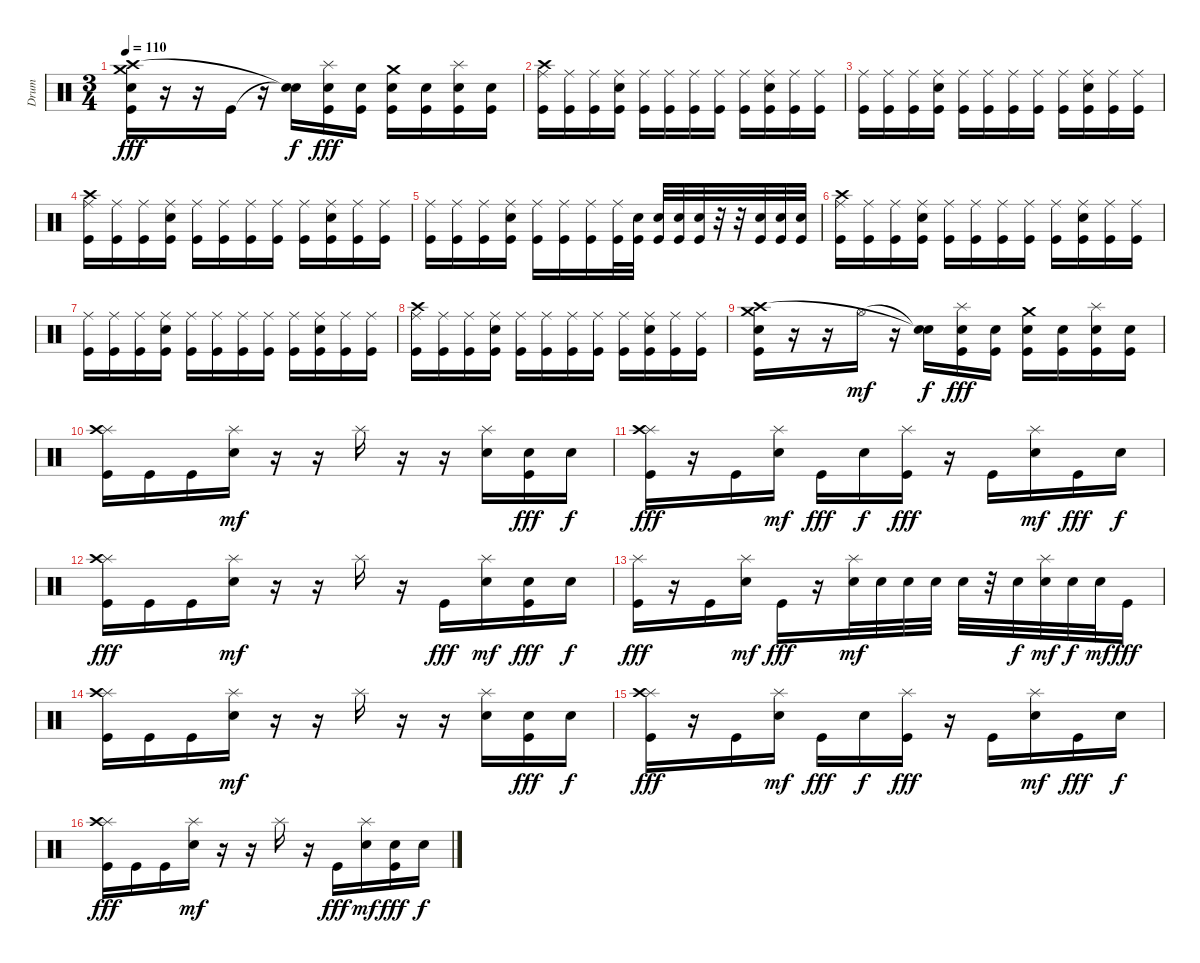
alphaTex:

\track ("Drum" "Drum") {instrument percussion}
\staff {score}
\articulation defaults
\ts (3 4)
\tempo 110
\clef neutral
\ks c
("Crash medium (hit)" "Crash high (hit)" "Electric Snare (hit)" "Kick (hit)").16{dy fff} r.16 r.16 "Kick (hit)".16 r.16 ("Snare (hit)"{t} "Snare (hit)"{t}).16{dy f} ("Splash (hit)" "Electric Snare (hit)" "Kick (hit)").16{dy fff} ("Electric Snare (hit)" "Kick (hit)").16 ("Crash medium (hit)" "Electric Snare (hit)" "Kick (hit)").16 ("Electric Snare (hit)" "Kick (hit)").16 ("Splash (hit)" "Electric Snare (hit)" "Kick (hit)").16 ("Electric Snare (hit)" "Kick (hit)").16 |
("Ride (middle)" "Crash high (hit)" "Kick (hit)").16 ("Ride (middle)" "Kick (hit)").16 ("Ride (middle)" "Kick (hit)").16 ("Ride (middle)" "Electric Snare (hit)" "Kick (hit)").16 ("Ride (middle)" "Kick (hit)").16 ("Ride (middle)" "Kick (hit)").16 ("Ride (middle)" "Kick (hit)").16 ("Ride (middle)" "Kick (hit)").16 ("Ride (middle)" "Kick (hit)").16 ("Ride (middle)" "Electric Snare (hit)" "Kick (hit)").16 ("Ride (middle)" "Kick (hit)").16 ("Ride (middle)" "Kick (hit)").16 |
("Ride (middle)" "Kick (hit)").16 ("Ride (middle)" "Kick (hit)").16 ("Ride (middle)" "Kick (hit)").16 ("Ride (middle)" "Electric Snare (hit)" "Kick (hit)").16 ("Ride (middle)" "Kick (hit)").16 ("Ride (middle)" "Kick (hit)").16 ("Ride (middle)" "Kick (hit)").16 ("Ride (middle)" "Kick (hit)").16 ("Ride (middle)" "Kick (hit)").16 ("Ride (middle)" "Electric Snare (hit)" "Kick (hit)").16 ("Ride (middle)" "Kick (hit)").16 ("Ride (middle)" "Kick (hit)").16 |
("Ride (middle)" "Crash high (hit)" "Kick (hit)").16 ("Ride (middle)" "Kick (hit)").16 ("Ride (middle)" "Kick (hit)").16 ("Ride (middle)" "Electric Snare (hit)" "Kick (hit)").16 ("Ride (middle)" "Kick (hit)").16 ("Ride (middle)" "Kick (hit)").16 ("Ride (middle)" "Kick (hit)").16 ("Ride (middle)" "Kick (hit)").16 ("Ride (middle)" "Kick (hit)").16 ("Ride (middle)" "Electric Snare (hit)" "Kick (hit)").16 ("Ride (middle)" "Kick (hit)").16 ("Ride (middle)" "Kick (hit)").16 |
("Ride (middle)" "Kick (hit)").16 ("Ride (middle)" "Kick (hit)").16 ("Ride (middle)" "Kick (hit)").16 ("Ride (middle)" "Electric Snare (hit)" "Kick (hit)").16 ("Ride (middle)" "Kick (hit)").16 ("Ride (middle)" "Kick (hit)").16 ("Ride (middle)" "Kick (hit)").16 ("Ride (middle)" "Kick (hit)").32 ("Electric Snare (hit)" "Kick (hit)").32 ("Electric Snare (hit)" "Kick (hit)").32 ("Electric Snare (hit)" "Kick (hit)").32 ("Electric Snare (hit)" "Kick (hit)").32 r.32 r.32 ("Electric Snare (hit)" "Kick (hit)").32 ("Electric Snare (hit)" "Kick (hit)").32 ("Electric Snare (hit)" "Kick (hit)").32 |
("Ride (middle)" "Crash high (hit)" "Kick (hit)").16 ("Ride (middle)" "Kick (hit)").16 ("Ride (middle)" "Kick (hit)").16 ("Ride (middle)" "Electric Snare (hit)" "Kick (hit)").16 ("Ride (middle)" "Kick (hit)").16 ("Ride (middle)" "Kick (hit)").16 ("Ride (middle)" "Kick (hit)").16 ("Ride (middle)" "Kick (hit)").16 ("Ride (middle)" "Kick (hit)").16 ("Ride (middle)" "Electric Snare (hit)" "Kick (hit)").16 ("Ride (middle)" "Kick (hit)").16 ("Ride (middle)" "Kick (hit)").16 |
("Ride (middle)" "Kick (hit)").16 ("Ride (middle)" "Kick (hit)").16 ("Ride (middle)" "Kick (hit)").16 ("Ride (middle)" "Electric Snare (hit)" "Kick (hit)").16 ("Ride (middle)" "Kick (hit)").16 ("Ride (middle)" "Kick (hit)").16 ("Ride (middle)" "Kick (hit)").16 ("Ride (middle)" "Kick (hit)").16 ("Ride (middle)" "Kick (hit)").16 ("Ride (middle)" "Electric Snare (hit)" "Kick (hit)").16 ("Ride (middle)" "Kick (hit)").16 ("Ride (middle)" "Kick (hit)").16 |
("Ride (middle)" "Crash high (hit)" "Kick (hit)").16 ("Ride (middle)" "Kick (hit)").16 ("Ride (middle)" "Kick (hit)").16 ("Ride (middle)" "Electric Snare (hit)" "Kick (hit)").16 ("Ride (middle)" "Kick (hit)").16 ("Ride (middle)" "Kick (hit)").16 ("Ride (middle)" "Kick (hit)").16 ("Ride (middle)" "Kick (hit)").16 ("Ride (middle)" "Kick (hit)").16 ("Ride (middle)" "Electric Snare (hit)" "Kick (hit)").16 ("Ride (middle)" "Kick (hit)").16 ("Ride (middle)" "Kick (hit)").16 |
("Crash medium (hit)" "Crash high (hit)" "Electric Snare (hit)" "Kick (hit)").16 r.16 r.16 "Hi-Hat (open)".16{dy mf} r.16 ("Snare (hit)"{t} "Snare (hit)"{t}).16{dy f} ("Splash (hit)" "Electric Snare (hit)" "Kick (hit)").16{dy fff} ("Electric Snare (hit)" "Kick (hit)").16 ("Crash medium (hit)" "Electric Snare (hit)" "Kick (hit)").16 ("Electric Snare (hit)" "Kick (hit)").16 ("Splash (hit)" "Electric Snare (hit)" "Kick (hit)").16 ("Electric Snare (hit)" "Kick (hit)").16 |
("Splash (hit)" "Crash high (hit)" "Kick (hit)").16 "Kick (hit)".16 "Kick (hit)".16 ("Splash (hit)" "Electric Snare (hit)").16{dy mf} r.16 r.16 "Splash (hit)".16 r.16 r.16 ("Splash (hit)" "Electric Snare (hit)").16 ("Electric Snare (hit)" "Kick (hit)").16{dy fff} "Electric Snare (hit)".16{dy f} |
("Splash (hit)" "Crash high (hit)" "Kick (hit)").16{dy fff} r.16 "Kick (hit)".16 ("Splash (hit)" "Electric Snare (hit)").16{dy mf} "Kick (hit)".16{dy fff} "Electric Snare (hit)".16{dy f} ("Splash (hit)" "Kick (hit)").16{dy fff} r.16 "Kick (hit)".16 ("Splash (hit)" "Electric Snare (hit)").16{dy mf} "Kick (hit)".16{dy fff} "Electric Snare (hit)".16{dy f} |
("Splash (hit)" "Crash high (hit)" "Kick (hit)").16{dy fff} "Kick (hit)".16 "Kick (hit)".16 ("Splash (hit)" "Electric Snare (hit)").16{dy mf} r.16 r.16 "Splash (hit)".16 r.16 "Kick (hit)".16{dy fff} ("Splash (hit)" "Electric Snare (hit)").16{dy mf} ("Electric Snare (hit)" "Kick (hit)").16{dy fff} "Electric Snare (hit)".16{dy f} |
("Splash (hit)" "Kick (hit)").16{dy fff} r.16 "Kick (hit)".16 ("Splash (hit)" "Electric Snare (hit)").16{dy mf} "Kick (hit)".16{dy fff} r.16 ("Splash (hit)" "Electric Snare (hit)").32{dy mf} "Electric Snare (hit)".32 "Electric Snare (hit)".32 "Electric Snare (hit)".32 "Electric Snare (hit)".32 r.32 "Electric Snare (hit)".32{dy f} ("Splash (hit)" "Electric Snare (hit)").32{dy mf} "Electric Snare (hit)".32{dy f} "Electric Snare (hit)".32{dy mf} "Kick (hit)".16{dy fff} |
("Splash (hit)" "Crash high (hit)" "Kick (hit)").16 "Kick (hit)".16 "Kick (hit)".16 ("Splash (hit)" "Electric Snare (hit)").16{dy mf} r.16 r.16 "Splash (hit)".16 r.16 r.16 ("Splash (hit)" "Electric Snare (hit)").16 ("Electric Snare (hit)" "Kick (hit)").16{dy fff} "Electric Snare (hit)".16{dy f} |
("Splash (hit)" "Crash high (hit)" "Kick (hit)").16{dy fff} r.16 "Kick (hit)".16 ("Splash (hit)" "Electric Snare (hit)").16{dy mf} "Kick (hit)".16{dy fff} "Electric Snare (hit)".16{dy f} ("Splash (hit)" "Kick (hit)").16{dy fff} r.16 "Kick (hit)".16 ("Splash (hit)" "Electric Snare (hit)").16{dy mf} "Kick (hit)".16{dy fff} "Electric Snare (hit)".16{dy f} |
("Splash (hit)" "Crash high (hit)" "Kick (hit)").16{dy fff} "Kick (hit)".16 "Kick (hit)".16 ("Splash (hit)" "Electric Snare (hit)").16{dy mf} r.16 r.16 "Splash (hit)".16 r.16 "Kick (hit)".16{dy fff} ("Splash (hit)" "Electric Snare (hit)").16{dy mf} ("Electric Snare (hit)" "Kick (hit)").16{dy fff} "Electric Snare (hit)".16{dy f}
